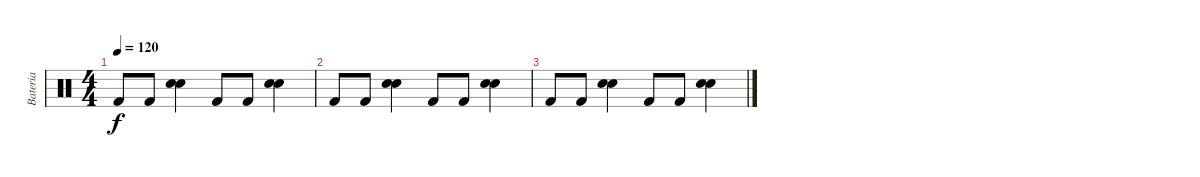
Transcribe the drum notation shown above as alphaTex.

\track ("Bateria" "Bateria") {instrument percussion}
\staff {score}
\articulation defaults
\ts (4 4)
\tempo 120
\clef neutral
\ks c "Kick (hit) 2".8{dy f} "Kick (hit) 2".8
("Hand Clap (hit)" "Snare (hit) 2").4 "Kick (hit) 2".8 "Kick (hit) 2".8 ("Hand Clap (hit)" "Snare (hit) 2").4 |
"Kick (hit) 2".8 "Kick (hit) 2".8 ("Hand Clap (hit)" "Snare (hit) 2").4 "Kick (hit) 2".8 "Kick (hit) 2".8 ("Hand Clap (hit)" "Snare (hit) 2").4 |
"Kick (hit) 2".8 "Kick (hit) 2".8 ("Hand Clap (hit)" "Snare (hit) 2").4 "Kick (hit) 2".8 "Kick (hit) 2".8 ("Hand Clap (hit)" "Snare (hit) 2").4
